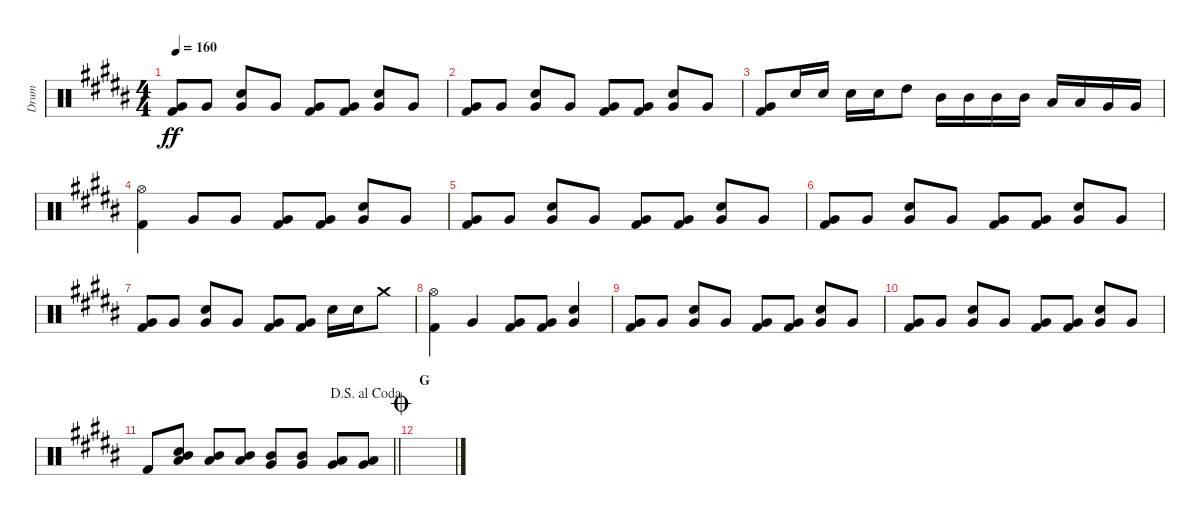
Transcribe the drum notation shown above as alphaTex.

\track ("Drum" "Drum") {instrument percussion}
\staff {score}
\articulation defaults
\ts (4 4)
\tempo 160
\clef neutral
\ks b
("Very Low Tom (hit)" "Kick (hit) 2").8{dy ff} "Very Low Tom (hit)".8 ("Very Low Tom (hit)" "Snare (hit) 2").8 "Very Low Tom (hit)".8 ("Very Low Tom (hit)" "Kick (hit) 2").8 ("Very Low Tom (hit)" "Kick (hit) 2").8 ("Very Low Tom (hit)" "Snare (hit) 2").8 "Very Low Tom (hit)".8 |
("Very Low Tom (hit)" "Kick (hit) 2").8 "Very Low Tom (hit)".8 ("Very Low Tom (hit)" "Snare (hit) 2").8 "Very Low Tom (hit)".8 ("Very Low Tom (hit)" "Kick (hit) 2").8 ("Very Low Tom (hit)" "Kick (hit) 2").8 ("Very Low Tom (hit)" "Snare (hit) 2").8 "Very Low Tom (hit)".8 |
("Very Low Tom (hit)" "Kick (hit) 2").8 "Snare (hit) 2".16 "Snare (hit) 2".16 "Snare (hit) 2".16 "Snare (hit) 2".16 "High Tom (hit)".8 "Mid Tom (hit)".16 "Mid Tom (hit)".16 "Mid Tom (hit)".16 "Mid Tom (hit)".16 "Low Tom (hit)".16 "Low Tom (hit)".16 "Very Low Tom (hit)".16 "Very Low Tom (hit)".16 |
("Hi-Hat (open)" "Kick (hit) 2").4 "Very Low Tom (hit)".8 "Very Low Tom (hit)".8 ("Very Low Tom (hit)" "Kick (hit) 2").8 ("Very Low Tom (hit)" "Kick (hit) 2").8 ("Very Low Tom (hit)" "Snare (hit) 2").8 "Very Low Tom (hit)".8 |
("Very Low Tom (hit)" "Kick (hit) 2").8 "Very Low Tom (hit)".8 ("Very Low Tom (hit)" "Snare (hit) 2").8 "Very Low Tom (hit)".8 ("Very Low Tom (hit)" "Kick (hit) 2").8 ("Very Low Tom (hit)" "Kick (hit) 2").8 ("Very Low Tom (hit)" "Snare (hit) 2").8 "Very Low Tom (hit)".8 |
("Very Low Tom (hit)" "Kick (hit) 2").8 "Very Low Tom (hit)".8 ("Very Low Tom (hit)" "Snare (hit) 2").8 "Very Low Tom (hit)".8 ("Very Low Tom (hit)" "Kick (hit) 2").8 ("Very Low Tom (hit)" "Kick (hit) 2").8 ("Very Low Tom (hit)" "Snare (hit) 2").8 "Very Low Tom (hit)".8 |
("Very Low Tom (hit)" "Kick (hit) 2").8 "Very Low Tom (hit)".8 ("Very Low Tom (hit)" "Snare (hit) 2").8 "Very Low Tom (hit)".8 ("Very Low Tom (hit)" "Kick (hit) 2").8 ("Very Low Tom (hit)" "Kick (hit) 2").8 "Snare (hit) 2".16 "Snare (hit) 2".16 "Crash medium (hit)".8 |
("Hi-Hat (open)" "Kick (hit) 2").4 "Very Low Tom (hit)".4 ("Very Low Tom (hit)" "Kick (hit) 2").8 ("Very Low Tom (hit)" "Kick (hit) 2").8 ("Very Low Tom (hit)" "Snare (hit) 2").4 |
("Very Low Tom (hit)" "Kick (hit) 2").8 "Very Low Tom (hit)".8 ("Very Low Tom (hit)" "Snare (hit) 2").8 "Very Low Tom (hit)".8 ("Very Low Tom (hit)" "Kick (hit) 2").8 ("Very Low Tom (hit)" "Kick (hit) 2").8 ("Very Low Tom (hit)" "Snare (hit) 2").8 "Very Low Tom (hit)".8 |
("Very Low Tom (hit)" "Kick (hit) 2").8 "Very Low Tom (hit)".8 ("Very Low Tom (hit)" "Snare (hit) 2").8 "Very Low Tom (hit)".8 ("Very Low Tom (hit)" "Kick (hit) 2").8 ("Very Low Tom (hit)" "Kick (hit) 2").8 ("Very Low Tom (hit)" "Snare (hit) 2").8 "Very Low Tom (hit)".8 |
\jump dalsegnoalcoda
\barLineRight lightlight "Kick (hit) 2".8
("Mid Tom (hit)" "Low Tom (hit)" "Snare (hit)").8 ("Mid Tom (hit)" "Low Tom (hit)").8 ("Mid Tom (hit)" "Low Tom (hit)").8 ("Mid Tom (hit)" "Very Low Tom (hit)").8 ("Mid Tom (hit)" "Very Low Tom (hit)").8 ("Low Tom (hit)" "Very Low Tom (hit)").8 ("Low Tom (hit)" "Very Low Tom (hit)").8 |
\section ("" "G")
\jump coda
